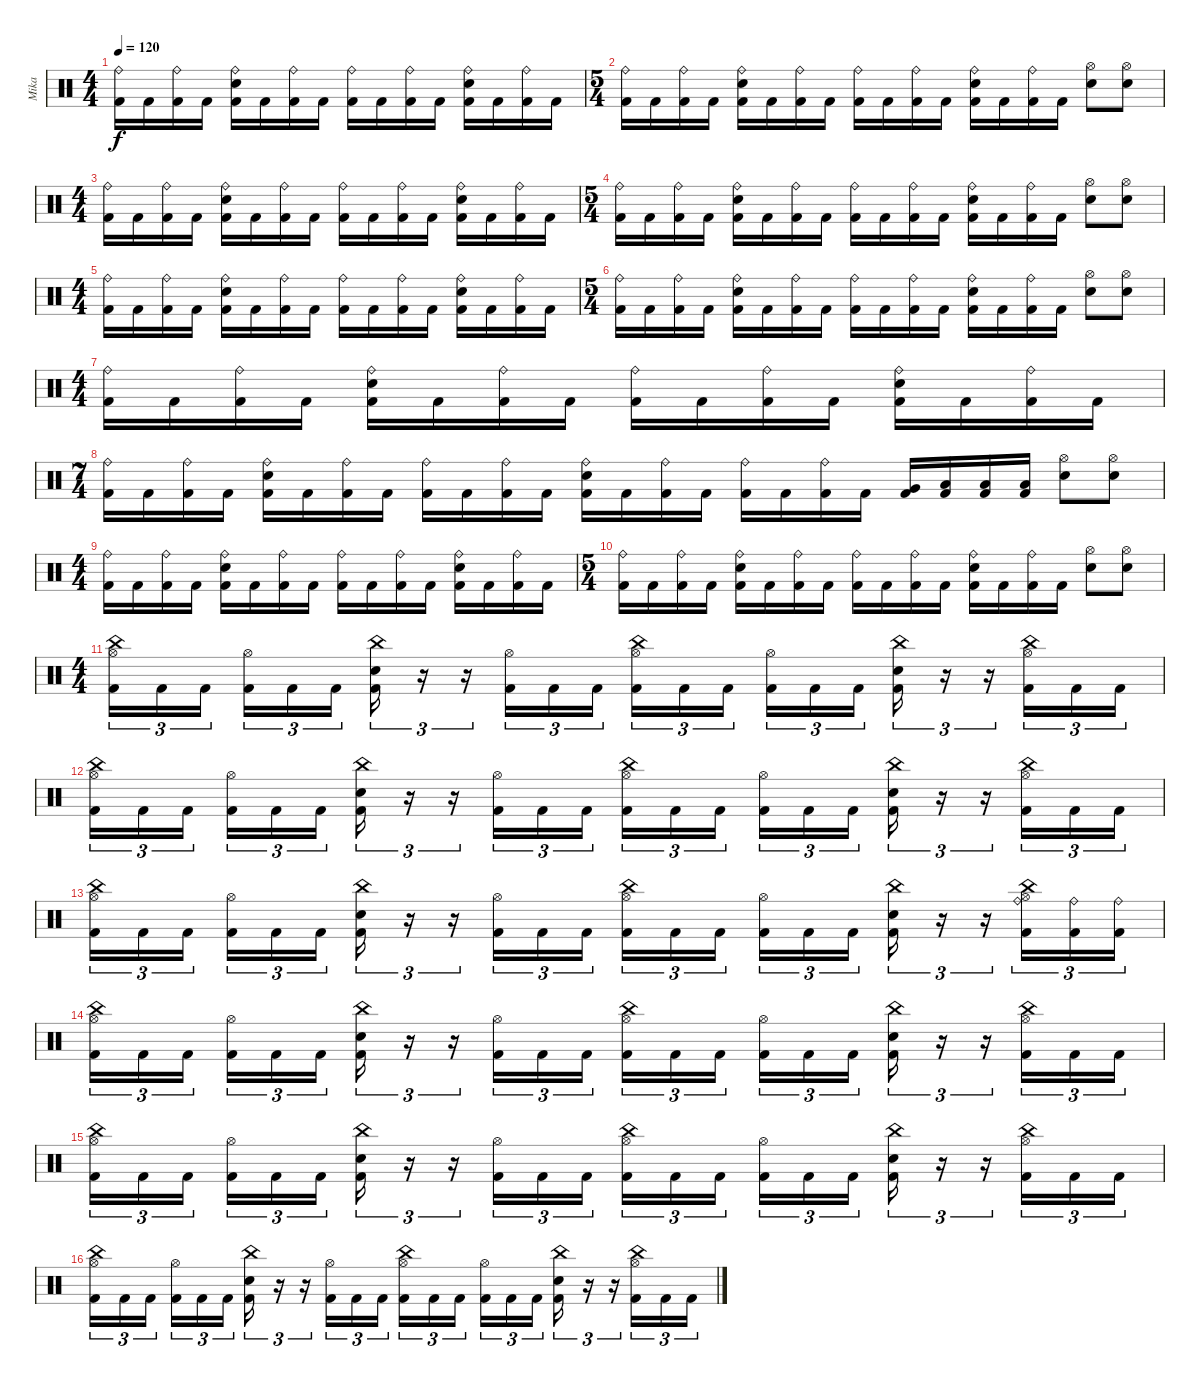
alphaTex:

\track ("Mika" "Mika") {instrument percussion}
\staff {score}
\articulation defaults
\ts (4 4)
\tempo 120
\clef neutral
\ks c
("Ride (bell)" "Kick (hit) 2").16{dy f} "Kick (hit) 2".16 ("Ride (bell)" "Kick (hit) 2").16 "Kick (hit) 2".16 ("Ride (bell)" "Electric Snare (hit)" "Kick (hit) 2").16 "Kick (hit) 2".16 ("Ride (bell)" "Kick (hit) 2").16 "Kick (hit) 2".16 ("Ride (bell)" "Kick (hit) 2").16 "Kick (hit) 2".16 ("Ride (bell)" "Kick (hit) 2").16 "Kick (hit) 2".16 ("Ride (bell)" "Electric Snare (hit)" "Kick (hit) 2").16 "Kick (hit) 2".16 ("Ride (bell)" "Kick (hit) 2").16 "Kick (hit) 2".16 |
\ts (5 4)
("Ride (bell)" "Kick (hit) 2").16 "Kick (hit) 2".16 ("Ride (bell)" "Kick (hit) 2").16 "Kick (hit) 2".16 ("Ride (bell)" "Electric Snare (hit)" "Kick (hit) 2").16 "Kick (hit) 2".16 ("Ride (bell)" "Kick (hit) 2").16 "Kick (hit) 2".16 ("Ride (bell)" "Kick (hit) 2").16 "Kick (hit) 2".16 ("Ride (bell)" "Kick (hit) 2").16 "Kick (hit) 2".16 ("Ride (bell)" "Electric Snare (hit)" "Kick (hit) 2").16 "Kick (hit) 2".16 ("Ride (bell)" "Kick (hit) 2").16 "Kick (hit) 2".16 ("Hi-Hat (open)" "Electric Snare (hit)").8 ("Hi-Hat (open)" "Electric Snare (hit)").8 |
\ts (4 4)
("Ride (bell)" "Kick (hit) 2").16 "Kick (hit) 2".16 ("Ride (bell)" "Kick (hit) 2").16 "Kick (hit) 2".16 ("Ride (bell)" "Electric Snare (hit)" "Kick (hit) 2").16 "Kick (hit) 2".16 ("Ride (bell)" "Kick (hit) 2").16 "Kick (hit) 2".16 ("Ride (bell)" "Kick (hit) 2").16 "Kick (hit) 2".16 ("Ride (bell)" "Kick (hit) 2").16 "Kick (hit) 2".16 ("Ride (bell)" "Electric Snare (hit)" "Kick (hit) 2").16 "Kick (hit) 2".16 ("Ride (bell)" "Kick (hit) 2").16 "Kick (hit) 2".16 |
\ts (5 4)
("Ride (bell)" "Kick (hit) 2").16 "Kick (hit) 2".16 ("Ride (bell)" "Kick (hit) 2").16 "Kick (hit) 2".16 ("Ride (bell)" "Electric Snare (hit)" "Kick (hit) 2").16 "Kick (hit) 2".16 ("Ride (bell)" "Kick (hit) 2").16 "Kick (hit) 2".16 ("Ride (bell)" "Kick (hit) 2").16 "Kick (hit) 2".16 ("Ride (bell)" "Kick (hit) 2").16 "Kick (hit) 2".16 ("Ride (bell)" "Electric Snare (hit)" "Kick (hit) 2").16 "Kick (hit) 2".16 ("Ride (bell)" "Kick (hit) 2").16 "Kick (hit) 2".16 ("Hi-Hat (open)" "Electric Snare (hit)").8 ("Hi-Hat (open)" "Electric Snare (hit)").8 |
\ts (4 4)
("Ride (bell)" "Kick (hit) 2").16 "Kick (hit) 2".16 ("Ride (bell)" "Kick (hit) 2").16 "Kick (hit) 2".16 ("Ride (bell)" "Electric Snare (hit)" "Kick (hit) 2").16 "Kick (hit) 2".16 ("Ride (bell)" "Kick (hit) 2").16 "Kick (hit) 2".16 ("Ride (bell)" "Kick (hit) 2").16 "Kick (hit) 2".16 ("Ride (bell)" "Kick (hit) 2").16 "Kick (hit) 2".16 ("Ride (bell)" "Electric Snare (hit)" "Kick (hit) 2").16 "Kick (hit) 2".16 ("Ride (bell)" "Kick (hit) 2").16 "Kick (hit) 2".16 |
\ts (5 4)
("Ride (bell)" "Kick (hit) 2").16 "Kick (hit) 2".16 ("Ride (bell)" "Kick (hit) 2").16 "Kick (hit) 2".16 ("Ride (bell)" "Electric Snare (hit)" "Kick (hit) 2").16 "Kick (hit) 2".16 ("Ride (bell)" "Kick (hit) 2").16 "Kick (hit) 2".16 ("Ride (bell)" "Kick (hit) 2").16 "Kick (hit) 2".16 ("Ride (bell)" "Kick (hit) 2").16 "Kick (hit) 2".16 ("Ride (bell)" "Electric Snare (hit)" "Kick (hit) 2").16 "Kick (hit) 2".16 ("Ride (bell)" "Kick (hit) 2").16 "Kick (hit) 2".16 ("Hi-Hat (open)" "Electric Snare (hit)").8 ("Hi-Hat (open)" "Electric Snare (hit)").8 |
\ts (4 4)
("Ride (bell)" "Kick (hit) 2").16 "Kick (hit) 2".16 ("Ride (bell)" "Kick (hit) 2").16 "Kick (hit) 2".16 ("Ride (bell)" "Electric Snare (hit)" "Kick (hit) 2").16 "Kick (hit) 2".16 ("Ride (bell)" "Kick (hit) 2").16 "Kick (hit) 2".16 ("Ride (bell)" "Kick (hit) 2").16 "Kick (hit) 2".16 ("Ride (bell)" "Kick (hit) 2").16 "Kick (hit) 2".16 ("Ride (bell)" "Electric Snare (hit)" "Kick (hit) 2").16 "Kick (hit) 2".16 ("Ride (bell)" "Kick (hit) 2").16 "Kick (hit) 2".16 |
\ts (7 4)
("Ride (bell)" "Kick (hit) 2").16 "Kick (hit) 2".16 ("Ride (bell)" "Kick (hit) 2").16 "Kick (hit) 2".16 ("Ride (bell)" "Electric Snare (hit)" "Kick (hit) 2").16 "Kick (hit) 2".16 ("Ride (bell)" "Kick (hit) 2").16 "Kick (hit) 2".16 ("Ride (bell)" "Kick (hit) 2").16 "Kick (hit) 2".16 ("Ride (bell)" "Kick (hit) 2").16 "Kick (hit) 2".16 ("Ride (bell)" "Electric Snare (hit)" "Kick (hit) 2").16 "Kick (hit) 2".16 ("Ride (bell)" "Kick (hit) 2").16 "Kick (hit) 2".16 ("Ride (bell)" "Kick (hit) 2").16 "Kick (hit) 2".16 ("Ride (bell)" "Kick (hit) 2").16 "Kick (hit) 2".16 ("Very Low Tom (hit)" "Kick (hit) 2").16 ("Low Floor Tom (hit)" "Kick (hit) 2").16 ("Low Tom (hit)" "Kick (hit) 2").16 ("Low Floor Tom (hit)" "Kick (hit) 2").16 ("Hi-Hat (open)" "Electric Snare (hit)").8 ("Hi-Hat (open)" "Electric Snare (hit)").8 |
\ts (4 4)
("Ride (bell)" "Kick (hit) 2").16 "Kick (hit) 2".16 ("Ride (bell)" "Kick (hit) 2").16 "Kick (hit) 2".16 ("Ride (bell)" "Electric Snare (hit)" "Kick (hit) 2").16 "Kick (hit) 2".16 ("Ride (bell)" "Kick (hit) 2").16 "Kick (hit) 2".16 ("Ride (bell)" "Kick (hit) 2").16 "Kick (hit) 2".16 ("Ride (bell)" "Kick (hit) 2").16 "Kick (hit) 2".16 ("Ride (bell)" "Electric Snare (hit)" "Kick (hit) 2").16 "Kick (hit) 2".16 ("Ride (bell)" "Kick (hit) 2").16 "Kick (hit) 2".16 |
\ts (5 4)
("Ride (bell)" "Kick (hit) 2").16 "Kick (hit) 2".16 ("Ride (bell)" "Kick (hit) 2").16 "Kick (hit) 2".16 ("Ride (bell)" "Electric Snare (hit)" "Kick (hit) 2").16 "Kick (hit) 2".16 ("Ride (bell)" "Kick (hit) 2").16 "Kick (hit) 2".16 ("Ride (bell)" "Kick (hit) 2").16 "Kick (hit) 2".16 ("Ride (bell)" "Kick (hit) 2").16 "Kick (hit) 2".16 ("Ride (bell)" "Electric Snare (hit)" "Kick (hit) 2").16 "Kick (hit) 2".16 ("Ride (bell)" "Kick (hit) 2").16 "Kick (hit) 2".16 ("Hi-Hat (open)" "Electric Snare (hit)").8 ("Hi-Hat (open)" "Electric Snare (hit)").8 |
\ts (4 4)
("China (hit)" "Hi-Hat (open)" "Kick (hit) 2").16{tu (3 2)} "Kick (hit) 2".16{tu (3 2)} "Kick (hit) 2".16{tu (3 2) beam splitsecondary} ("Hi-Hat (open)" "Kick (hit) 2").16{tu (3 2)} "Kick (hit) 2".16{tu (3 2)} "Kick (hit) 2".16{tu (3 2)} ("Electric Snare (hit)" "China (hit)" "Kick (hit) 2").16{tu (3 2)} r.16{tu (3 2)} r.16{tu (3 2)} ("Hi-Hat (open)" "Kick (hit) 2").16{tu (3 2)} "Kick (hit) 2".16{tu (3 2)} "Kick (hit) 2".16{tu (3 2)} ("China (hit)" "Hi-Hat (open)" "Kick (hit) 2").16{tu (3 2)} "Kick (hit) 2".16{tu (3 2)} "Kick (hit) 2".16{tu (3 2) beam splitsecondary} ("Hi-Hat (open)" "Kick (hit) 2").16{tu (3 2)} "Kick (hit) 2".16{tu (3 2)} "Kick (hit) 2".16{tu (3 2)} ("Electric Snare (hit)" "China (hit)" "Kick (hit) 2").16{tu (3 2)} r.16{tu (3 2)} r.16{tu (3 2)} ("China (hit)" "Hi-Hat (open)" "Kick (hit) 2").16{tu (3 2)} "Kick (hit) 2".16{tu (3 2)} "Kick (hit) 2".16{tu (3 2)} |
("China (hit)" "Hi-Hat (open)" "Kick (hit) 2").16{tu (3 2)} "Kick (hit) 2".16{tu (3 2)} "Kick (hit) 2".16{tu (3 2) beam splitsecondary} ("Hi-Hat (open)" "Kick (hit) 2").16{tu (3 2)} "Kick (hit) 2".16{tu (3 2)} "Kick (hit) 2".16{tu (3 2)} ("Electric Snare (hit)" "China (hit)" "Kick (hit) 2").16{tu (3 2)} r.16{tu (3 2)} r.16{tu (3 2)} ("Hi-Hat (open)" "Kick (hit) 2").16{tu (3 2)} "Kick (hit) 2".16{tu (3 2)} "Kick (hit) 2".16{tu (3 2)} ("China (hit)" "Hi-Hat (open)" "Kick (hit) 2").16{tu (3 2)} "Kick (hit) 2".16{tu (3 2)} "Kick (hit) 2".16{tu (3 2) beam splitsecondary} ("Hi-Hat (open)" "Kick (hit) 2").16{tu (3 2)} "Kick (hit) 2".16{tu (3 2)} "Kick (hit) 2".16{tu (3 2)} ("Electric Snare (hit)" "China (hit)" "Kick (hit) 2").16{tu (3 2)} r.16{tu (3 2)} r.16{tu (3 2)} ("China (hit)" "Hi-Hat (open)" "Kick (hit) 2").16{tu (3 2)} "Kick (hit) 2".16{tu (3 2)} "Kick (hit) 2".16{tu (3 2)} |
("China (hit)" "Hi-Hat (open)" "Kick (hit) 2").16{tu (3 2)} "Kick (hit) 2".16{tu (3 2)} "Kick (hit) 2".16{tu (3 2) beam splitsecondary} ("Hi-Hat (open)" "Kick (hit) 2").16{tu (3 2)} "Kick (hit) 2".16{tu (3 2)} "Kick (hit) 2".16{tu (3 2)} ("Electric Snare (hit)" "China (hit)" "Kick (hit) 2").16{tu (3 2)} r.16{tu (3 2)} r.16{tu (3 2)} ("Hi-Hat (open)" "Kick (hit) 2").16{tu (3 2)} "Kick (hit) 2".16{tu (3 2)} "Kick (hit) 2".16{tu (3 2)} ("China (hit)" "Hi-Hat (open)" "Kick (hit) 2").16{tu (3 2)} "Kick (hit) 2".16{tu (3 2)} "Kick (hit) 2".16{tu (3 2) beam splitsecondary} ("Hi-Hat (open)" "Kick (hit) 2").16{tu (3 2)} "Kick (hit) 2".16{tu (3 2)} "Kick (hit) 2".16{tu (3 2)} ("Electric Snare (hit)" "China (hit)" "Kick (hit) 2").16{tu (3 2)} r.16{tu (3 2)} r.16{tu (3 2)} ("Ride (bell)" "China (hit)" "Hi-Hat (open)" "Kick (hit) 2").16{tu (3 2)} ("Ride (bell)" "Kick (hit) 2").16{tu (3 2)} ("Ride (bell)" "Kick (hit) 2").16{tu (3 2)} |
("China (hit)" "Hi-Hat (open)" "Kick (hit) 2").16{tu (3 2)} "Kick (hit) 2".16{tu (3 2)} "Kick (hit) 2".16{tu (3 2) beam splitsecondary} ("Hi-Hat (open)" "Kick (hit) 2").16{tu (3 2)} "Kick (hit) 2".16{tu (3 2)} "Kick (hit) 2".16{tu (3 2)} ("Electric Snare (hit)" "China (hit)" "Kick (hit) 2").16{tu (3 2)} r.16{tu (3 2)} r.16{tu (3 2)} ("Hi-Hat (open)" "Kick (hit) 2").16{tu (3 2)} "Kick (hit) 2".16{tu (3 2)} "Kick (hit) 2".16{tu (3 2)} ("China (hit)" "Hi-Hat (open)" "Kick (hit) 2").16{tu (3 2)} "Kick (hit) 2".16{tu (3 2)} "Kick (hit) 2".16{tu (3 2) beam splitsecondary} ("Hi-Hat (open)" "Kick (hit) 2").16{tu (3 2)} "Kick (hit) 2".16{tu (3 2)} "Kick (hit) 2".16{tu (3 2)} ("Electric Snare (hit)" "China (hit)" "Kick (hit) 2").16{tu (3 2)} r.16{tu (3 2)} r.16{tu (3 2)} ("China (hit)" "Hi-Hat (open)" "Kick (hit) 2").16{tu (3 2)} "Kick (hit) 2".16{tu (3 2)} "Kick (hit) 2".16{tu (3 2)} |
("China (hit)" "Hi-Hat (open)" "Kick (hit) 2").16{tu (3 2)} "Kick (hit) 2".16{tu (3 2)} "Kick (hit) 2".16{tu (3 2) beam splitsecondary} ("Hi-Hat (open)" "Kick (hit) 2").16{tu (3 2)} "Kick (hit) 2".16{tu (3 2)} "Kick (hit) 2".16{tu (3 2)} ("Electric Snare (hit)" "China (hit)" "Kick (hit) 2").16{tu (3 2)} r.16{tu (3 2)} r.16{tu (3 2)} ("Hi-Hat (open)" "Kick (hit) 2").16{tu (3 2)} "Kick (hit) 2".16{tu (3 2)} "Kick (hit) 2".16{tu (3 2)} ("China (hit)" "Hi-Hat (open)" "Kick (hit) 2").16{tu (3 2)} "Kick (hit) 2".16{tu (3 2)} "Kick (hit) 2".16{tu (3 2) beam splitsecondary} ("Hi-Hat (open)" "Kick (hit) 2").16{tu (3 2)} "Kick (hit) 2".16{tu (3 2)} "Kick (hit) 2".16{tu (3 2)} ("Electric Snare (hit)" "China (hit)" "Kick (hit) 2").16{tu (3 2)} r.16{tu (3 2)} r.16{tu (3 2)} ("China (hit)" "Hi-Hat (open)" "Kick (hit) 2").16{tu (3 2)} "Kick (hit) 2".16{tu (3 2)} "Kick (hit) 2".16{tu (3 2)} |
("China (hit)" "Hi-Hat (open)" "Kick (hit) 2").16{tu (3 2)} "Kick (hit) 2".16{tu (3 2)} "Kick (hit) 2".16{tu (3 2) beam splitsecondary} ("Hi-Hat (open)" "Kick (hit) 2").16{tu (3 2)} "Kick (hit) 2".16{tu (3 2)} "Kick (hit) 2".16{tu (3 2)} ("Electric Snare (hit)" "China (hit)" "Kick (hit) 2").16{tu (3 2)} r.16{tu (3 2)} r.16{tu (3 2)} ("Hi-Hat (open)" "Kick (hit) 2").16{tu (3 2)} "Kick (hit) 2".16{tu (3 2)} "Kick (hit) 2".16{tu (3 2)} ("China (hit)" "Hi-Hat (open)" "Kick (hit) 2").16{tu (3 2)} "Kick (hit) 2".16{tu (3 2)} "Kick (hit) 2".16{tu (3 2) beam splitsecondary} ("Hi-Hat (open)" "Kick (hit) 2").16{tu (3 2)} "Kick (hit) 2".16{tu (3 2)} "Kick (hit) 2".16{tu (3 2)} ("Electric Snare (hit)" "China (hit)" "Kick (hit) 2").16{tu (3 2)} r.16{tu (3 2)} r.16{tu (3 2)} ("China (hit)" "Hi-Hat (open)" "Kick (hit) 2").16{tu (3 2)} "Kick (hit) 2".16{tu (3 2)} "Kick (hit) 2".16{tu (3 2)}
